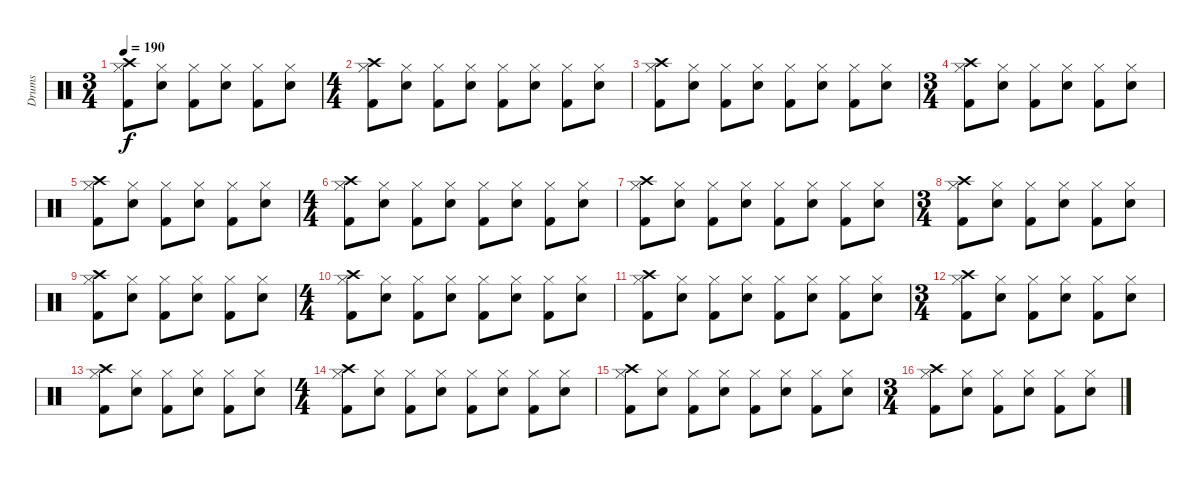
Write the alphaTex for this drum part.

\track ("Drums" "Drums") {instrument percussion}
\staff {score}
\articulation defaults
\ts (3 4)
\tempo 190
\clef neutral
\ks c
("Kick (hit) 2" "Hi-Hat (closed)" "Crash high (hit)").8{dy f} ("Snare (hit) 2" "Hi-Hat (closed)").8 ("Kick (hit) 2" "Hi-Hat (closed)").8 ("Snare (hit) 2" "Hi-Hat (closed)").8 ("Kick (hit) 2" "Hi-Hat (closed)").8 ("Snare (hit) 2" "Hi-Hat (closed)").8 |
\ts (4 4)
("Kick (hit) 2" "Hi-Hat (closed)" "Crash high (hit)").8 ("Snare (hit) 2" "Hi-Hat (closed)").8 ("Kick (hit) 2" "Hi-Hat (closed)").8 ("Snare (hit) 2" "Hi-Hat (closed)").8 ("Kick (hit) 2" "Hi-Hat (closed)").8 ("Snare (hit) 2" "Hi-Hat (closed)").8 ("Kick (hit) 2" "Hi-Hat (closed)").8 ("Snare (hit) 2" "Hi-Hat (closed)").8 |
("Kick (hit) 2" "Hi-Hat (closed)" "Crash high (hit)").8 ("Snare (hit) 2" "Hi-Hat (closed)").8 ("Kick (hit) 2" "Hi-Hat (closed)").8 ("Snare (hit) 2" "Hi-Hat (closed)").8 ("Kick (hit) 2" "Hi-Hat (closed)").8 ("Snare (hit) 2" "Hi-Hat (closed)").8 ("Kick (hit) 2" "Hi-Hat (closed)").8 ("Snare (hit) 2" "Hi-Hat (closed)").8 |
\ts (3 4)
("Kick (hit) 2" "Hi-Hat (closed)" "Crash high (hit)").8 ("Snare (hit) 2" "Hi-Hat (closed)").8 ("Kick (hit) 2" "Hi-Hat (closed)").8 ("Snare (hit) 2" "Hi-Hat (closed)").8 ("Kick (hit) 2" "Hi-Hat (closed)").8 ("Snare (hit) 2" "Hi-Hat (closed)").8 |
("Kick (hit) 2" "Hi-Hat (closed)" "Crash high (hit)").8 ("Snare (hit) 2" "Hi-Hat (closed)").8 ("Kick (hit) 2" "Hi-Hat (closed)").8 ("Snare (hit) 2" "Hi-Hat (closed)").8 ("Kick (hit) 2" "Hi-Hat (closed)").8 ("Snare (hit) 2" "Hi-Hat (closed)").8 |
\ts (4 4)
("Kick (hit) 2" "Hi-Hat (closed)" "Crash high (hit)").8 ("Snare (hit) 2" "Hi-Hat (closed)").8 ("Kick (hit) 2" "Hi-Hat (closed)").8 ("Snare (hit) 2" "Hi-Hat (closed)").8 ("Kick (hit) 2" "Hi-Hat (closed)").8 ("Snare (hit) 2" "Hi-Hat (closed)").8 ("Kick (hit) 2" "Hi-Hat (closed)").8 ("Snare (hit) 2" "Hi-Hat (closed)").8 |
("Kick (hit) 2" "Hi-Hat (closed)" "Crash high (hit)").8 ("Snare (hit) 2" "Hi-Hat (closed)").8 ("Kick (hit) 2" "Hi-Hat (closed)").8 ("Snare (hit) 2" "Hi-Hat (closed)").8 ("Kick (hit) 2" "Hi-Hat (closed)").8 ("Snare (hit) 2" "Hi-Hat (closed)").8 ("Kick (hit) 2" "Hi-Hat (closed)").8 ("Snare (hit) 2" "Hi-Hat (closed)").8 |
\ts (3 4)
("Kick (hit) 2" "Hi-Hat (closed)" "Crash high (hit)").8 ("Snare (hit) 2" "Hi-Hat (closed)").8 ("Kick (hit) 2" "Hi-Hat (closed)").8 ("Snare (hit) 2" "Hi-Hat (closed)").8 ("Kick (hit) 2" "Hi-Hat (closed)").8 ("Snare (hit) 2" "Hi-Hat (closed)").8 |
("Kick (hit) 2" "Hi-Hat (closed)" "Crash high (hit)").8 ("Snare (hit) 2" "Hi-Hat (closed)").8 ("Kick (hit) 2" "Hi-Hat (closed)").8 ("Snare (hit) 2" "Hi-Hat (closed)").8 ("Kick (hit) 2" "Hi-Hat (closed)").8 ("Snare (hit) 2" "Hi-Hat (closed)").8 |
\ts (4 4)
("Kick (hit) 2" "Hi-Hat (closed)" "Crash high (hit)").8 ("Snare (hit) 2" "Hi-Hat (closed)").8 ("Kick (hit) 2" "Hi-Hat (closed)").8 ("Snare (hit) 2" "Hi-Hat (closed)").8 ("Kick (hit) 2" "Hi-Hat (closed)").8 ("Snare (hit) 2" "Hi-Hat (closed)").8 ("Kick (hit) 2" "Hi-Hat (closed)").8 ("Snare (hit) 2" "Hi-Hat (closed)").8 |
("Kick (hit) 2" "Hi-Hat (closed)" "Crash high (hit)").8 ("Snare (hit) 2" "Hi-Hat (closed)").8 ("Kick (hit) 2" "Hi-Hat (closed)").8 ("Snare (hit) 2" "Hi-Hat (closed)").8 ("Kick (hit) 2" "Hi-Hat (closed)").8 ("Snare (hit) 2" "Hi-Hat (closed)").8 ("Kick (hit) 2" "Hi-Hat (closed)").8 ("Snare (hit) 2" "Hi-Hat (closed)").8 |
\ts (3 4)
("Kick (hit) 2" "Hi-Hat (closed)" "Crash high (hit)").8 ("Snare (hit) 2" "Hi-Hat (closed)").8 ("Kick (hit) 2" "Hi-Hat (closed)").8 ("Snare (hit) 2" "Hi-Hat (closed)").8 ("Kick (hit) 2" "Hi-Hat (closed)").8 ("Snare (hit) 2" "Hi-Hat (closed)").8 |
("Kick (hit) 2" "Hi-Hat (closed)" "Crash high (hit)").8 ("Snare (hit) 2" "Hi-Hat (closed)").8 ("Kick (hit) 2" "Hi-Hat (closed)").8 ("Snare (hit) 2" "Hi-Hat (closed)").8 ("Kick (hit) 2" "Hi-Hat (closed)").8 ("Snare (hit) 2" "Hi-Hat (closed)").8 |
\ts (4 4)
("Kick (hit) 2" "Hi-Hat (closed)" "Crash high (hit)").8 ("Snare (hit) 2" "Hi-Hat (closed)").8 ("Kick (hit) 2" "Hi-Hat (closed)").8 ("Snare (hit) 2" "Hi-Hat (closed)").8 ("Kick (hit) 2" "Hi-Hat (closed)").8 ("Snare (hit) 2" "Hi-Hat (closed)").8 ("Kick (hit) 2" "Hi-Hat (closed)").8 ("Snare (hit) 2" "Hi-Hat (closed)").8 |
("Kick (hit) 2" "Hi-Hat (closed)" "Crash high (hit)").8 ("Snare (hit) 2" "Hi-Hat (closed)").8 ("Kick (hit) 2" "Hi-Hat (closed)").8 ("Snare (hit) 2" "Hi-Hat (closed)").8 ("Kick (hit) 2" "Hi-Hat (closed)").8 ("Snare (hit) 2" "Hi-Hat (closed)").8 ("Kick (hit) 2" "Hi-Hat (closed)").8 ("Snare (hit) 2" "Hi-Hat (closed)").8 |
\ts (3 4)
("Kick (hit) 2" "Hi-Hat (closed)" "Crash high (hit)").8 ("Snare (hit) 2" "Hi-Hat (closed)").8 ("Kick (hit) 2" "Hi-Hat (closed)").8 ("Snare (hit) 2" "Hi-Hat (closed)").8 ("Kick (hit) 2" "Hi-Hat (closed)").8 ("Snare (hit) 2" "Hi-Hat (closed)").8
